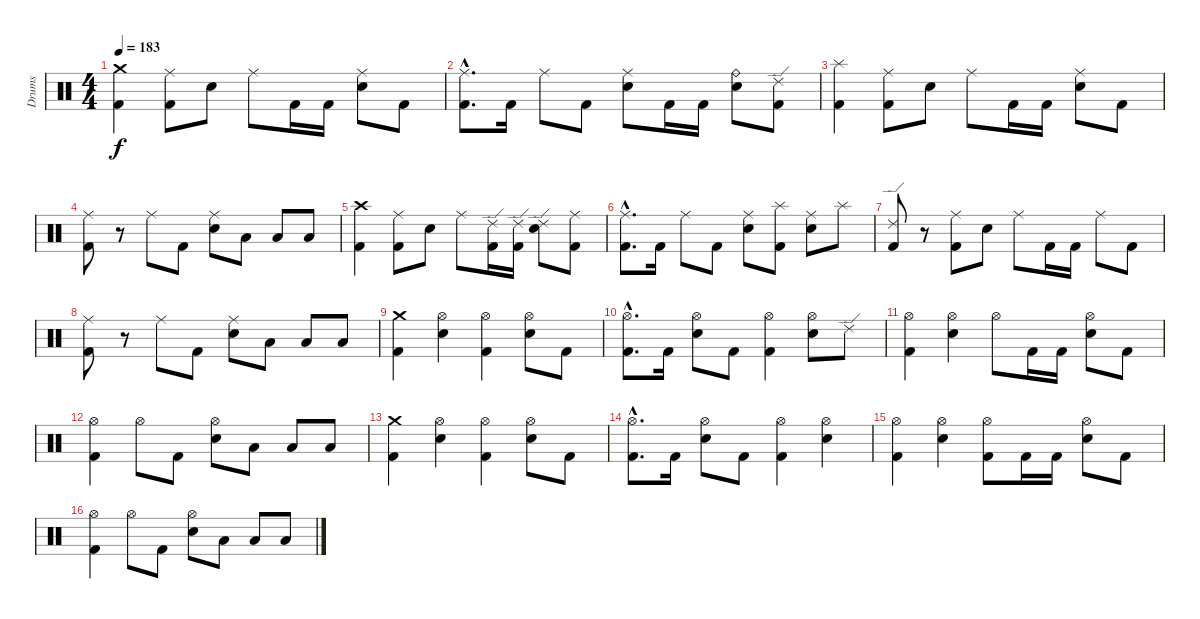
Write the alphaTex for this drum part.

\track ("Drums" "Drums") {instrument percussion}
\staff {score}
\articulation defaults
\ts (4 4)
\tempo 183
\clef neutral
\ks c
("Kick (hit) 2" "Crash medium (hit)").4{dy f} ("Kick (hit) 2" "Ride (middle)").8 "Electric Snare (hit)".8 "Ride (middle)".8 "Kick (hit) 2".16 "Kick (hit) 2".16 ("Electric Snare (hit)" "Ride (middle)").8 "Kick (hit) 2".8 |
("Kick (hit) 2"{hac} "Ride (middle)"{hac}).8{d} "Kick (hit) 2".16 "Ride (middle)".8 "Kick (hit) 2".8 ("Electric Snare (hit)" "Ride (middle)").8 "Kick (hit) 2".16 "Kick (hit) 2".16 ("Electric Snare (hit)" "Ride (bell)").8 ("Kick (hit) 2" "Ride (edge) 2").8 |
("Kick (hit) 2" "Splash (hit)").4 ("Kick (hit) 2" "Ride (middle)").8 "Electric Snare (hit)".8 "Ride (middle)".8 "Kick (hit) 2".16 "Kick (hit) 2".16 ("Electric Snare (hit)" "Ride (middle)").8 "Kick (hit) 2".8 |
("Kick (hit) 2" "Ride (middle)").8 r.8 "Ride (middle)".8 "Kick (hit) 2".8 ("Electric Snare (hit)" "Ride (middle)").8 "Low Tom (hit)".8 "Low Tom (hit)".8 "Low Tom (hit)".8 |
("Kick (hit) 2" "Crash high (hit)").4 ("Kick (hit) 2" "Ride (middle)").8 "Electric Snare (hit)".8 "Ride (middle)".8 ("Kick (hit) 2" "Ride (edge) 2").16 ("Kick (hit) 2" "Ride (edge) 2").16 ("Electric Snare (hit)" "Ride (edge) 2").8 ("Kick (hit) 2" "Ride (middle)").8 |
("Kick (hit) 2"{hac} "Ride (middle)"{hac}).8{d} "Kick (hit) 2".16 "Ride (middle)".8 "Kick (hit) 2".8 ("Electric Snare (hit)" "Ride (middle)").8 ("Kick (hit) 2" "Splash (hit)").8 ("Electric Snare (hit)" "Ride (middle)").8 "Splash (hit)".8 |
("Kick (hit) 2" "Ride (edge) 2").8 r.8 ("Kick (hit) 2" "Ride (middle)").8 "Electric Snare (hit)".8 "Ride (middle)".8 "Kick (hit) 2".16 "Kick (hit) 2".16 "Ride (middle)".8 "Kick (hit) 2".8 |
("Kick (hit) 2" "Ride (middle)").8 r.8 "Ride (middle)".8 "Kick (hit) 2".8 ("Electric Snare (hit)" "Ride (middle)").8 "Low Tom (hit)".8 "Low Tom (hit)".8 "Low Tom (hit)".8 |
("Kick (hit) 2" "Crash medium (hit)").4 ("Electric Snare (hit)" "Hi-Hat (open)").4 ("Kick (hit) 2" "Hi-Hat (open)").4 ("Electric Snare (hit)" "Hi-Hat (open)").8 "Kick (hit) 2".8 |
("Kick (hit) 2"{hac} "Hi-Hat (open)"{hac}).8{d} "Kick (hit) 2".16 ("Electric Snare (hit)" "Hi-Hat (open)").8 "Kick (hit) 2".8 ("Kick (hit) 2" "Hi-Hat (open)").4 ("Electric Snare (hit)" "Hi-Hat (open)").8 "Ride (edge) 2".8 |
("Kick (hit) 2" "Hi-Hat (open)").4 ("Electric Snare (hit)" "Hi-Hat (open)").4 "Hi-Hat (open)".8 "Kick (hit) 2".16 "Kick (hit) 2".16 ("Electric Snare (hit)" "Hi-Hat (open)").8 "Kick (hit) 2".8 |
("Kick (hit) 2" "Hi-Hat (open)").4 "Hi-Hat (open)".8 "Kick (hit) 2".8 ("Electric Snare (hit)" "Hi-Hat (open)").8 "Low Tom (hit)".8 "Low Tom (hit)".8 "Low Tom (hit)".8 |
("Kick (hit) 2" "Crash medium (hit)").4 ("Electric Snare (hit)" "Hi-Hat (open)").4 ("Kick (hit) 2" "Hi-Hat (open)").4 ("Electric Snare (hit)" "Hi-Hat (open)").8 "Kick (hit) 2".8 |
("Kick (hit) 2"{hac} "Hi-Hat (open)"{hac}).8{d} "Kick (hit) 2".16 ("Electric Snare (hit)" "Hi-Hat (open)").8 "Kick (hit) 2".8 ("Kick (hit) 2" "Hi-Hat (open)").4 ("Electric Snare (hit)" "Hi-Hat (open)").4 |
("Kick (hit) 2" "Hi-Hat (open)").4 ("Electric Snare (hit)" "Hi-Hat (open)").4 ("Kick (hit) 2" "Hi-Hat (open)").8 "Kick (hit) 2".16 "Kick (hit) 2".16 ("Electric Snare (hit)" "Hi-Hat (open)").8 "Kick (hit) 2".8 |
("Kick (hit) 2" "Hi-Hat (open)").4 "Hi-Hat (open)".8 "Kick (hit) 2".8 ("Electric Snare (hit)" "Hi-Hat (open)").8 "Low Tom (hit)".8 "Low Tom (hit)".8 "Low Tom (hit)".8
